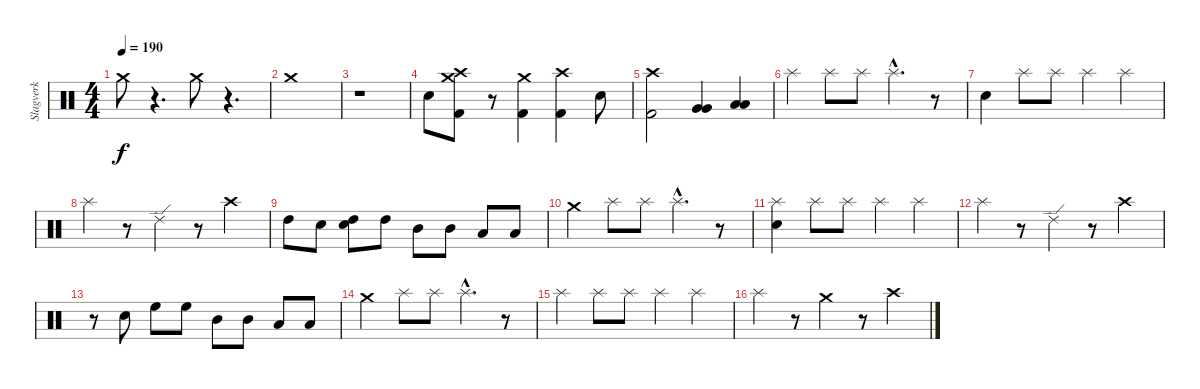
\track ("Slagverk" "Slagverk") {instrument percussion}
\staff {score}
\articulation defaults
\ts (4 4)
\tempo 190
\clef neutral
\ks c "Crash medium (hit)".8{dy f}
r.4{d} "Crash medium (hit)".8 r.4{d} |
"Crash medium (hit)".1 |
r.1 |
"Snare (hit) 2".8 ("Crash medium (hit)" "Crash high (hit)" "Kick (hit) 2").8 r.8 ("Crash medium (hit)" "Kick (hit) 2").4 ("Crash high (hit)" "Kick (hit) 2").4 "Snare (hit) 2".8 |
("Crash high (hit)" "Kick (hit) 2").2 ("Very Low Tom (hit)" "Very Low Tom (hit)").4 ("Low Floor Tom (hit)" "Low Floor Tom (hit)").4 |
"Splash (hit)".4 "Splash (hit)".8 "Splash (hit)".8 "Splash (hit)"{hac}.4{d} r.8 |
"Snare (hit) 2".4 "Splash (hit)".8 "Splash (hit)".8 "Splash (hit)".4 "Splash (hit)".4 |
"Splash (hit)".4 r.8 "Ride (edge) 2".4 r.8 "Crash high (hit)".4 |
"High Tom (hit)".8 "Snare (hit) 2".8 ("High Tom (hit)" "Snare (hit) 2").8 "High Tom (hit)".8 "Mid Tom (hit)".8 "Mid Tom (hit)".8 "Low Floor Tom (hit)".8 "Low Floor Tom (hit)".8 |
"Crash medium (hit)".4 "Splash (hit)".8 "Splash (hit)".8 "Splash (hit)"{hac}.4{d} r.8 |
("Splash (hit)" "Snare (hit) 2").4 "Splash (hit)".8 "Splash (hit)".8 "Splash (hit)".4 "Splash (hit)".4 |
"Splash (hit)".4 r.8 "Ride (edge) 2".4 r.8 "Crash high (hit)".4 |
r.8 "Snare (hit) 2".8 "High Floor Tom (hit)".8 "High Floor Tom (hit)".8 "Mid Tom (hit)".8 "Mid Tom (hit)".8 "Low Floor Tom (hit)".8 "Low Floor Tom (hit)".8 |
"Crash medium (hit)".4 "Splash (hit)".8 "Splash (hit)".8 "Splash (hit)"{hac}.4{d} r.8 |
"Splash (hit)".4 "Splash (hit)".8 "Splash (hit)".8 "Splash (hit)".4 "Splash (hit)".4 |
"Splash (hit)".4 r.8 "Crash medium (hit)".4 r.8 "Crash high (hit)".4
